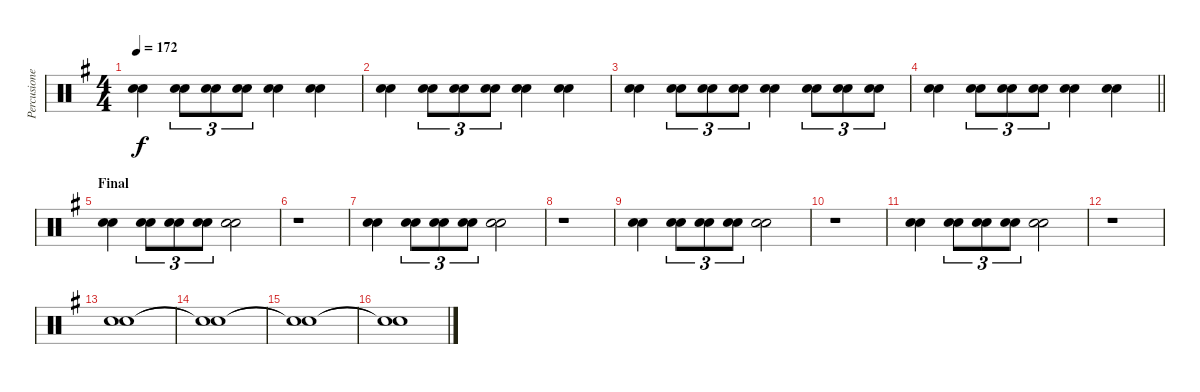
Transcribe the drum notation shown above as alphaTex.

\track ("Percusiones" "Percusione") {instrument percussion}
\staff {score}
\articulation defaults
\ts (4 4)
\tempo 172
\clef neutral
\ks eminor
("Electric Snare (hit)" "Electric Snare (hit)").4{dy f} ("Electric Snare (hit)" "Electric Snare (hit)").8{tu (3 2)} ("Electric Snare (hit)" "Electric Snare (hit)").8{tu (3 2)} ("Electric Snare (hit)" "Electric Snare (hit)").8{tu (3 2)} ("Electric Snare (hit)" "Electric Snare (hit)").4 ("Electric Snare (hit)" "Electric Snare (hit)").4 |
("Electric Snare (hit)" "Electric Snare (hit)").4 ("Electric Snare (hit)" "Electric Snare (hit)").8{tu (3 2)} ("Electric Snare (hit)" "Electric Snare (hit)").8{tu (3 2)} ("Electric Snare (hit)" "Electric Snare (hit)").8{tu (3 2)} ("Electric Snare (hit)" "Electric Snare (hit)").4 ("Electric Snare (hit)" "Electric Snare (hit)").4 |
("Electric Snare (hit)" "Electric Snare (hit)").4 ("Electric Snare (hit)" "Electric Snare (hit)").8{tu (3 2)} ("Electric Snare (hit)" "Electric Snare (hit)").8{tu (3 2)} ("Electric Snare (hit)" "Electric Snare (hit)").8{tu (3 2)} ("Electric Snare (hit)" "Electric Snare (hit)").4 ("Electric Snare (hit)" "Electric Snare (hit)").8{tu (3 2)} ("Electric Snare (hit)" "Electric Snare (hit)").8{tu (3 2)} ("Electric Snare (hit)" "Electric Snare (hit)").8{tu (3 2)} |
\barLineRight lightlight
("Electric Snare (hit)" "Electric Snare (hit)").4 ("Electric Snare (hit)" "Electric Snare (hit)").8{tu (3 2)} ("Electric Snare (hit)" "Electric Snare (hit)").8{tu (3 2)} ("Electric Snare (hit)" "Electric Snare (hit)").8{tu (3 2)} ("Electric Snare (hit)" "Electric Snare (hit)").4 ("Electric Snare (hit)" "Electric Snare (hit)").4 |
\section ("" "Final")
("Electric Snare (hit)" "Electric Snare (hit)").4{volume 16} ("Electric Snare (hit)" "Electric Snare (hit)").8{tu (3 2)} ("Electric Snare (hit)" "Electric Snare (hit)").8{tu (3 2)} ("Electric Snare (hit)" "Electric Snare (hit)").8{tu (3 2)} ("Electric Snare (hit)" "Electric Snare (hit)").2 |
r.1 |
("Electric Snare (hit)" "Electric Snare (hit)").4 ("Electric Snare (hit)" "Electric Snare (hit)").8{tu (3 2)} ("Electric Snare (hit)" "Electric Snare (hit)").8{tu (3 2)} ("Electric Snare (hit)" "Electric Snare (hit)").8{tu (3 2)} ("Electric Snare (hit)" "Electric Snare (hit)").2 |
r.1 |
("Electric Snare (hit)" "Electric Snare (hit)").4 ("Electric Snare (hit)" "Electric Snare (hit)").8{tu (3 2)} ("Electric Snare (hit)" "Electric Snare (hit)").8{tu (3 2)} ("Electric Snare (hit)" "Electric Snare (hit)").8{tu (3 2)} ("Electric Snare (hit)" "Electric Snare (hit)").2 |
r.1 |
("Electric Snare (hit)" "Electric Snare (hit)").4 ("Electric Snare (hit)" "Electric Snare (hit)").8{tu (3 2)} ("Electric Snare (hit)" "Electric Snare (hit)").8{tu (3 2)} ("Electric Snare (hit)" "Electric Snare (hit)").8{tu (3 2)} ("Electric Snare (hit)" "Electric Snare (hit)").2 |
r.1 |
("Electric Snare (hit)" "Electric Snare (hit)").1 |
("Electric Snare (hit)"{t} "Electric Snare (hit)"{t}).1 |
("Electric Snare (hit)"{t} "Electric Snare (hit)"{t}).1 |
("Electric Snare (hit)"{t} "Electric Snare (hit)"{t}).1
